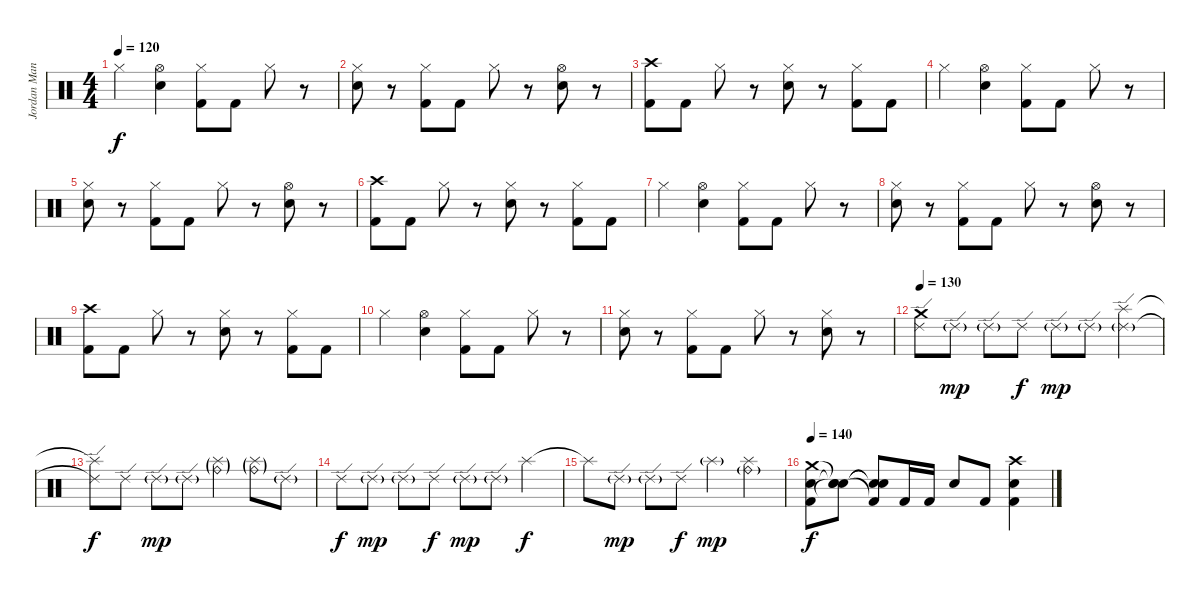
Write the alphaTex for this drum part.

\track ("Jordan Mancino - Drums" "Jordan Man") {instrument percussion}
\staff {score}
\articulation defaults
\ts (4 4)
\tempo 120
\clef neutral
\ks c "Hi-Hat (closed)".4{dy f}
("Snare (hit) 2" "Hi-Hat (open)").4 ("Kick (hit) 2" "Hi-Hat (closed)").8 "Kick (hit) 2".8 "Hi-Hat (closed)".8 r.8 |
("Snare (hit) 2" "Hi-Hat (closed)").8 r.8 ("Kick (hit) 2" "Hi-Hat (closed)").8 "Kick (hit) 2".8 "Hi-Hat (closed)".8 r.8 ("Snare (hit) 2" "Hi-Hat (open)").8 r.8 |
("Kick (hit) 2" "Crash high (hit)").8 "Kick (hit) 2".8 "Hi-Hat (closed)".8 r.8 ("Snare (hit) 2" "Hi-Hat (closed)").8 r.8 ("Kick (hit) 2" "Hi-Hat (closed)").8 "Kick (hit) 2".8 |
"Hi-Hat (closed)".4 ("Snare (hit) 2" "Hi-Hat (open)").4 ("Kick (hit) 2" "Hi-Hat (closed)").8 "Kick (hit) 2".8 "Hi-Hat (closed)".8 r.8 |
("Snare (hit) 2" "Hi-Hat (closed)").8 r.8 ("Kick (hit) 2" "Hi-Hat (closed)").8 "Kick (hit) 2".8 "Hi-Hat (closed)".8 r.8 ("Snare (hit) 2" "Hi-Hat (open)").8 r.8 |
("Kick (hit) 2" "Crash high (hit)").8 "Kick (hit) 2".8 "Hi-Hat (closed)".8 r.8 ("Snare (hit) 2" "Hi-Hat (closed)").8 r.8 ("Kick (hit) 2" "Hi-Hat (closed)").8 "Kick (hit) 2".8 |
"Hi-Hat (closed)".4 ("Snare (hit) 2" "Hi-Hat (open)").4 ("Kick (hit) 2" "Hi-Hat (closed)").8 "Kick (hit) 2".8 "Hi-Hat (closed)".8 r.8 |
("Snare (hit) 2" "Hi-Hat (closed)").8 r.8 ("Kick (hit) 2" "Hi-Hat (closed)").8 "Kick (hit) 2".8 "Hi-Hat (closed)".8 r.8 ("Snare (hit) 2" "Hi-Hat (open)").8 r.8 |
("Kick (hit) 2" "Crash high (hit)").8 "Kick (hit) 2".8 "Hi-Hat (closed)".8 r.8 ("Snare (hit) 2" "Hi-Hat (closed)").8 r.8 ("Kick (hit) 2" "Hi-Hat (closed)").8 "Kick (hit) 2".8 |
"Hi-Hat (closed)".4 ("Snare (hit) 2" "Hi-Hat (open)").4 ("Kick (hit) 2" "Hi-Hat (closed)").8 "Kick (hit) 2".8 "Hi-Hat (closed)".8 r.8 |
("Snare (hit) 2" "Hi-Hat (closed)").8 r.8 ("Kick (hit) 2" "Hi-Hat (closed)").8 "Kick (hit) 2".8 "Hi-Hat (closed)".8 r.8 ("Snare (hit) 2" "Hi-Hat (closed)").8 r.8 |
\tempo 130
("Crash medium (hit)" "Ride (edge) 2").8 "Ride (edge) 2"{g}.8{dy mp} "Ride (edge) 2"{g}.8 "Ride (edge) 2".8{dy f} "Ride (edge) 2"{g}.8{dy mp} "Ride (edge) 2"{g}.8 ("Splash (hit)" "Ride (edge) 2"{g}).4 |
("Splash (hit)"{t} "Ride (edge) 2"{t}).8{dy f} "Ride (edge) 2".8 "Ride (edge) 2"{g}.8{dy mp} "Ride (edge) 2"{g}.8 ("Ride (bell)"{g} "Splash (hit)"{g}).4 ("Ride (bell)"{g} "Splash (hit)"{g}).8 "Ride (edge) 2"{g}.8 |
"Ride (edge) 2".8{dy f} "Ride (edge) 2"{g}.8{dy mp} "Ride (edge) 2"{g}.8 "Ride (edge) 2".8{dy f} "Ride (edge) 2"{g}.8{dy mp} "Ride (edge) 2"{g}.8 "Splash (hit)".4{dy f} |
"Splash (hit)"{t}.8 "Ride (edge) 2"{g}.8{dy mp} "Ride (edge) 2"{g}.8 "Ride (edge) 2".8{dy f} "Splash (hit)"{g}.4{dy mp} ("Ride (bell)"{g} "Splash (hit)").4 |
\tempo 140
("Crash medium (hit)" "Snare (hit) 2" "Kick (hit) 2").8{dy f} ("Snare (hit)"{t} "Snare (hit)"{t} "Snare (hit)"{t}).8 ("Snare (hit)"{t} "Snare (hit)"{t} "Kick (hit) 2"{t}).8 "Kick (hit) 2".16 "Kick (hit) 2".16 "Snare (hit) 2".8 "Kick (hit) 2".8 ("Crash high (hit)" "Snare (hit) 2" "Kick (hit) 2").4
